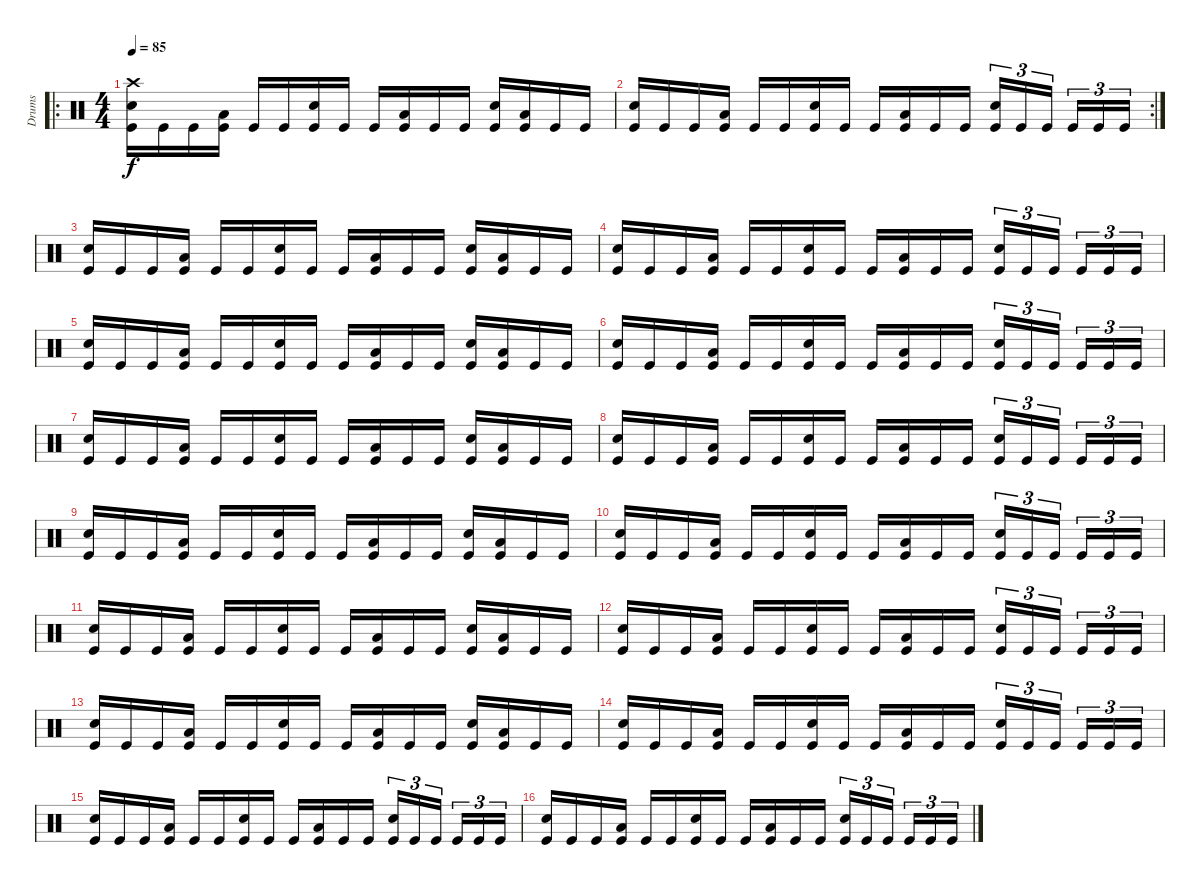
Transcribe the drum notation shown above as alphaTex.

\track ("Drums" "Drums") {instrument percussion}
\staff {score}
\articulation defaults
\ro
\ts (4 4)
\tempo 85
\clef neutral
\ks c
("Crash high (hit)" "Snare (hit) 2" "Kick (hit)").16{dy f} "Kick (hit)".16 "Kick (hit)".16 ("Low Floor Tom (hit)" "Kick (hit)").16 "Kick (hit)".16 "Kick (hit)".16 ("Snare (hit) 2" "Kick (hit)").16 "Kick (hit)".16 "Kick (hit)".16 ("Low Floor Tom (hit)" "Kick (hit)").16 "Kick (hit)".16 "Kick (hit)".16 ("Snare (hit) 2" "Kick (hit)").16 ("Low Floor Tom (hit)" "Kick (hit)").16 "Kick (hit)".16 "Kick (hit)".16 |
\rc 2
("Snare (hit) 2" "Kick (hit)").16 "Kick (hit)".16 "Kick (hit)".16 ("Low Floor Tom (hit)" "Kick (hit)").16 "Kick (hit)".16 "Kick (hit)".16 ("Snare (hit) 2" "Kick (hit)").16 "Kick (hit)".16 "Kick (hit)".16 ("Low Floor Tom (hit)" "Kick (hit)").16 "Kick (hit)".16 "Kick (hit)".16 ("Snare (hit) 2" "Kick (hit)").16{tu (3 2)} "Kick (hit)".16{tu (3 2)} "Kick (hit)".16{tu (3 2)} "Kick (hit)".16{tu (3 2)} "Kick (hit)".16{tu (3 2)} "Kick (hit)".16{tu (3 2)} |
("Snare (hit) 2" "Kick (hit)").16 "Kick (hit)".16 "Kick (hit)".16 ("Low Floor Tom (hit)" "Kick (hit)").16 "Kick (hit)".16 "Kick (hit)".16 ("Snare (hit) 2" "Kick (hit)").16 "Kick (hit)".16 "Kick (hit)".16 ("Low Floor Tom (hit)" "Kick (hit)").16 "Kick (hit)".16 "Kick (hit)".16 ("Snare (hit) 2" "Kick (hit)").16 ("Low Floor Tom (hit)" "Kick (hit)").16 "Kick (hit)".16 "Kick (hit)".16 |
("Snare (hit) 2" "Kick (hit)").16 "Kick (hit)".16 "Kick (hit)".16 ("Low Floor Tom (hit)" "Kick (hit)").16 "Kick (hit)".16 "Kick (hit)".16 ("Snare (hit) 2" "Kick (hit)").16 "Kick (hit)".16 "Kick (hit)".16 ("Low Floor Tom (hit)" "Kick (hit)").16 "Kick (hit)".16 "Kick (hit)".16 ("Snare (hit) 2" "Kick (hit)").16{tu (3 2)} "Kick (hit)".16{tu (3 2)} "Kick (hit)".16{tu (3 2)} "Kick (hit)".16{tu (3 2)} "Kick (hit)".16{tu (3 2)} "Kick (hit)".16{tu (3 2)} |
("Snare (hit) 2" "Kick (hit)").16 "Kick (hit)".16 "Kick (hit)".16 ("Low Floor Tom (hit)" "Kick (hit)").16 "Kick (hit)".16 "Kick (hit)".16 ("Snare (hit) 2" "Kick (hit)").16 "Kick (hit)".16 "Kick (hit)".16 ("Low Floor Tom (hit)" "Kick (hit)").16 "Kick (hit)".16 "Kick (hit)".16 ("Snare (hit) 2" "Kick (hit)").16 ("Low Floor Tom (hit)" "Kick (hit)").16 "Kick (hit)".16 "Kick (hit)".16 |
("Snare (hit) 2" "Kick (hit)").16 "Kick (hit)".16 "Kick (hit)".16 ("Low Floor Tom (hit)" "Kick (hit)").16 "Kick (hit)".16 "Kick (hit)".16 ("Snare (hit) 2" "Kick (hit)").16 "Kick (hit)".16 "Kick (hit)".16 ("Low Floor Tom (hit)" "Kick (hit)").16 "Kick (hit)".16 "Kick (hit)".16 ("Snare (hit) 2" "Kick (hit)").16{tu (3 2)} "Kick (hit)".16{tu (3 2)} "Kick (hit)".16{tu (3 2)} "Kick (hit)".16{tu (3 2)} "Kick (hit)".16{tu (3 2)} "Kick (hit)".16{tu (3 2)} |
("Snare (hit) 2" "Kick (hit)").16 "Kick (hit)".16 "Kick (hit)".16 ("Low Floor Tom (hit)" "Kick (hit)").16 "Kick (hit)".16 "Kick (hit)".16 ("Snare (hit) 2" "Kick (hit)").16 "Kick (hit)".16 "Kick (hit)".16 ("Low Floor Tom (hit)" "Kick (hit)").16 "Kick (hit)".16 "Kick (hit)".16 ("Snare (hit) 2" "Kick (hit)").16 ("Low Floor Tom (hit)" "Kick (hit)").16 "Kick (hit)".16 "Kick (hit)".16 |
("Snare (hit) 2" "Kick (hit)").16 "Kick (hit)".16 "Kick (hit)".16 ("Low Floor Tom (hit)" "Kick (hit)").16 "Kick (hit)".16 "Kick (hit)".16 ("Snare (hit) 2" "Kick (hit)").16 "Kick (hit)".16 "Kick (hit)".16 ("Low Floor Tom (hit)" "Kick (hit)").16 "Kick (hit)".16 "Kick (hit)".16 ("Snare (hit) 2" "Kick (hit)").16{tu (3 2)} "Kick (hit)".16{tu (3 2)} "Kick (hit)".16{tu (3 2)} "Kick (hit)".16{tu (3 2)} "Kick (hit)".16{tu (3 2)} "Kick (hit)".16{tu (3 2)} |
("Snare (hit) 2" "Kick (hit)").16 "Kick (hit)".16 "Kick (hit)".16 ("Low Floor Tom (hit)" "Kick (hit)").16 "Kick (hit)".16 "Kick (hit)".16 ("Snare (hit) 2" "Kick (hit)").16 "Kick (hit)".16 "Kick (hit)".16 ("Low Floor Tom (hit)" "Kick (hit)").16 "Kick (hit)".16 "Kick (hit)".16 ("Snare (hit) 2" "Kick (hit)").16 ("Low Floor Tom (hit)" "Kick (hit)").16 "Kick (hit)".16 "Kick (hit)".16 |
("Snare (hit) 2" "Kick (hit)").16 "Kick (hit)".16 "Kick (hit)".16 ("Low Floor Tom (hit)" "Kick (hit)").16 "Kick (hit)".16 "Kick (hit)".16 ("Snare (hit) 2" "Kick (hit)").16 "Kick (hit)".16 "Kick (hit)".16 ("Low Floor Tom (hit)" "Kick (hit)").16 "Kick (hit)".16 "Kick (hit)".16 ("Snare (hit) 2" "Kick (hit)").16{tu (3 2)} "Kick (hit)".16{tu (3 2)} "Kick (hit)".16{tu (3 2)} "Kick (hit)".16{tu (3 2)} "Kick (hit)".16{tu (3 2)} "Kick (hit)".16{tu (3 2)} |
("Snare (hit) 2" "Kick (hit)").16 "Kick (hit)".16 "Kick (hit)".16 ("Low Floor Tom (hit)" "Kick (hit)").16 "Kick (hit)".16 "Kick (hit)".16 ("Snare (hit) 2" "Kick (hit)").16 "Kick (hit)".16 "Kick (hit)".16 ("Low Floor Tom (hit)" "Kick (hit)").16 "Kick (hit)".16 "Kick (hit)".16 ("Snare (hit) 2" "Kick (hit)").16 ("Low Floor Tom (hit)" "Kick (hit)").16 "Kick (hit)".16 "Kick (hit)".16 |
("Snare (hit) 2" "Kick (hit)").16 "Kick (hit)".16 "Kick (hit)".16 ("Low Floor Tom (hit)" "Kick (hit)").16 "Kick (hit)".16 "Kick (hit)".16 ("Snare (hit) 2" "Kick (hit)").16 "Kick (hit)".16 "Kick (hit)".16 ("Low Floor Tom (hit)" "Kick (hit)").16 "Kick (hit)".16 "Kick (hit)".16 ("Snare (hit) 2" "Kick (hit)").16{tu (3 2)} "Kick (hit)".16{tu (3 2)} "Kick (hit)".16{tu (3 2)} "Kick (hit)".16{tu (3 2)} "Kick (hit)".16{tu (3 2)} "Kick (hit)".16{tu (3 2)} |
("Snare (hit) 2" "Kick (hit)").16 "Kick (hit)".16 "Kick (hit)".16 ("Low Floor Tom (hit)" "Kick (hit)").16 "Kick (hit)".16 "Kick (hit)".16 ("Snare (hit) 2" "Kick (hit)").16 "Kick (hit)".16 "Kick (hit)".16 ("Low Floor Tom (hit)" "Kick (hit)").16 "Kick (hit)".16 "Kick (hit)".16 ("Snare (hit) 2" "Kick (hit)").16 ("Low Floor Tom (hit)" "Kick (hit)").16 "Kick (hit)".16 "Kick (hit)".16 |
("Snare (hit) 2" "Kick (hit)").16 "Kick (hit)".16 "Kick (hit)".16 ("Low Floor Tom (hit)" "Kick (hit)").16 "Kick (hit)".16 "Kick (hit)".16 ("Snare (hit) 2" "Kick (hit)").16 "Kick (hit)".16 "Kick (hit)".16 ("Low Floor Tom (hit)" "Kick (hit)").16 "Kick (hit)".16 "Kick (hit)".16 ("Snare (hit) 2" "Kick (hit)").16{tu (3 2)} "Kick (hit)".16{tu (3 2)} "Kick (hit)".16{tu (3 2)} "Kick (hit)".16{tu (3 2)} "Kick (hit)".16{tu (3 2)} "Kick (hit)".16{tu (3 2)} |
("Snare (hit) 2" "Kick (hit)").16 "Kick (hit)".16 "Kick (hit)".16 ("Low Floor Tom (hit)" "Kick (hit)").16 "Kick (hit)".16 "Kick (hit)".16 ("Snare (hit) 2" "Kick (hit)").16 "Kick (hit)".16 "Kick (hit)".16 ("Low Floor Tom (hit)" "Kick (hit)").16 "Kick (hit)".16 "Kick (hit)".16 ("Snare (hit) 2" "Kick (hit)").16{tu (3 2)} "Kick (hit)".16{tu (3 2)} "Kick (hit)".16{tu (3 2)} "Kick (hit)".16{tu (3 2)} "Kick (hit)".16{tu (3 2)} "Kick (hit)".16{tu (3 2)} |
("Snare (hit) 2" "Kick (hit)").16 "Kick (hit)".16 "Kick (hit)".16 ("Low Floor Tom (hit)" "Kick (hit)").16 "Kick (hit)".16 "Kick (hit)".16 ("Snare (hit) 2" "Kick (hit)").16 "Kick (hit)".16 "Kick (hit)".16 ("Low Floor Tom (hit)" "Kick (hit)").16 "Kick (hit)".16 "Kick (hit)".16 ("Snare (hit) 2" "Kick (hit)").16{tu (3 2)} "Kick (hit)".16{tu (3 2)} "Kick (hit)".16{tu (3 2)} "Kick (hit)".16{tu (3 2)} "Kick (hit)".16{tu (3 2)} "Kick (hit)".16{tu (3 2)}
